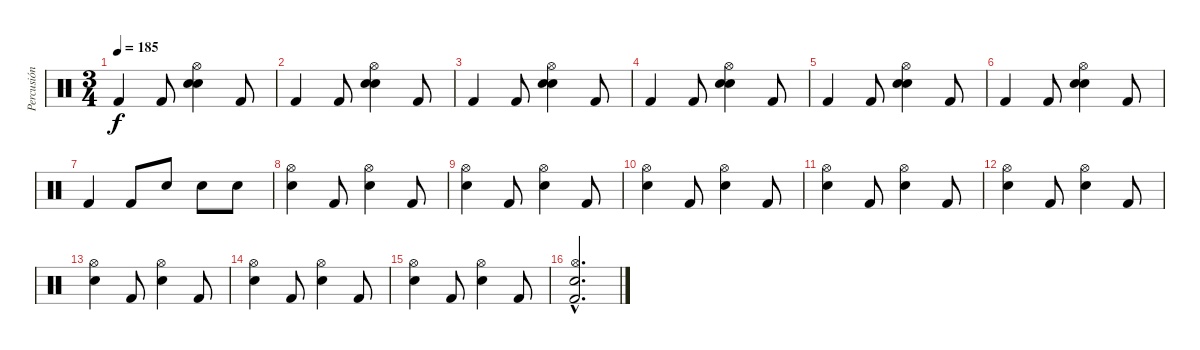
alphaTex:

\track ("Percusión" "Percusión") {instrument percussion}
\staff {score}
\articulation defaults
\ts (3 4)
\tempo 185
\clef neutral
\ks c "Kick (hit) 2".4{dy f} "Kick (hit) 2".8
("Hi-Hat (open)" "Electric Snare (hit)" "Snare (hit) 2").4 "Kick (hit) 2".8 |
"Kick (hit) 2".4 "Kick (hit) 2".8 ("Hi-Hat (open)" "Electric Snare (hit)" "Snare (hit) 2").4 "Kick (hit) 2".8 |
"Kick (hit) 2".4 "Kick (hit) 2".8 ("Hi-Hat (open)" "Electric Snare (hit)" "Snare (hit) 2").4 "Kick (hit) 2".8 |
"Kick (hit) 2".4 "Kick (hit) 2".8 ("Hi-Hat (open)" "Electric Snare (hit)" "Snare (hit) 2").4 "Kick (hit) 2".8 |
"Kick (hit) 2".4 "Kick (hit) 2".8 ("Hi-Hat (open)" "Electric Snare (hit)" "Snare (hit) 2").4 "Kick (hit) 2".8 |
"Kick (hit) 2".4 "Kick (hit) 2".8 ("Hi-Hat (open)" "Electric Snare (hit)" "Snare (hit) 2").4 "Kick (hit) 2".8 |
"Kick (hit) 2".4 "Kick (hit) 2".8 "Electric Snare (hit)".8 "Electric Snare (hit)".8 "Electric Snare (hit)".8 |
("Hi-Hat (open)" "Electric Snare (hit)").4 "Kick (hit) 2".8 ("Hi-Hat (open)" "Electric Snare (hit)").4 "Kick (hit) 2".8 |
("Hi-Hat (open)" "Electric Snare (hit)").4 "Kick (hit) 2".8 ("Hi-Hat (open)" "Electric Snare (hit)").4 "Kick (hit) 2".8 |
("Hi-Hat (open)" "Electric Snare (hit)").4 "Kick (hit) 2".8 ("Hi-Hat (open)" "Electric Snare (hit)").4 "Kick (hit) 2".8 |
("Hi-Hat (open)" "Electric Snare (hit)").4 "Kick (hit) 2".8 ("Hi-Hat (open)" "Electric Snare (hit)").4 "Kick (hit) 2".8 |
("Hi-Hat (open)" "Electric Snare (hit)").4 "Kick (hit) 2".8 ("Hi-Hat (open)" "Electric Snare (hit)").4 "Kick (hit) 2".8 |
("Hi-Hat (open)" "Electric Snare (hit)").4 "Kick (hit) 2".8 ("Hi-Hat (open)" "Electric Snare (hit)").4 "Kick (hit) 2".8 |
("Hi-Hat (open)" "Electric Snare (hit)").4 "Kick (hit) 2".8 ("Hi-Hat (open)" "Electric Snare (hit)").4 "Kick (hit) 2".8 |
("Hi-Hat (open)" "Electric Snare (hit)").4 "Kick (hit) 2".8 ("Hi-Hat (open)" "Electric Snare (hit)").4 "Kick (hit) 2".8 |
("Hi-Hat (open)"{hac} "Electric Snare (hit)"{hac} "Kick (hit) 2"{hac}).2{d}
